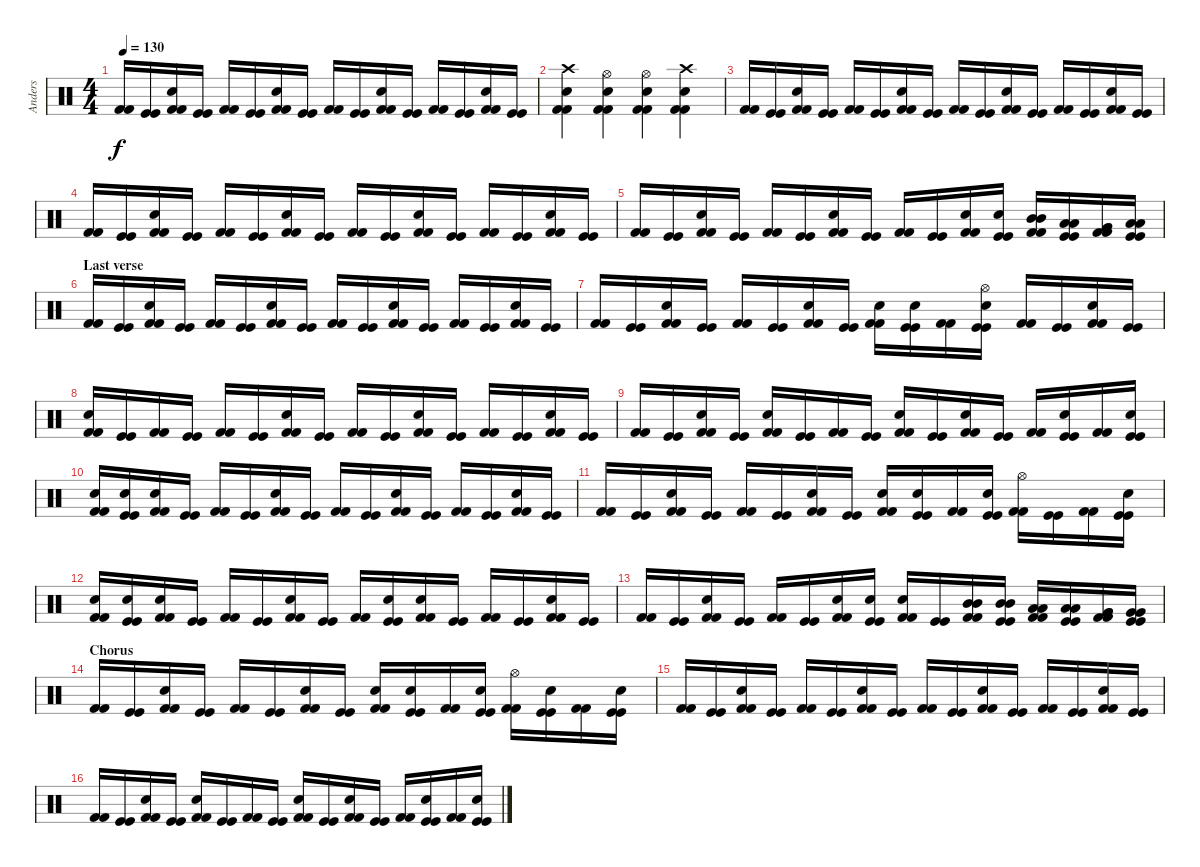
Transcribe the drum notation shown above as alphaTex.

\track ("Anders" "Anders") {instrument percussion}
\staff {score}
\articulation defaults
\ts (4 4)
\tempo 130
\clef neutral
\ks c
("Kick (hit) 2" "Kick (hit) 2").16{dy f} ("Kick (hit)" "Kick (hit)").16 ("Snare (hit) 2" "Kick (hit) 2" "Kick (hit) 2").16 ("Kick (hit)" "Kick (hit)").16 ("Kick (hit) 2" "Kick (hit) 2").16 ("Kick (hit)" "Kick (hit)").16 ("Snare (hit) 2" "Kick (hit) 2" "Kick (hit) 2").16 ("Kick (hit)" "Kick (hit)").16 ("Kick (hit) 2" "Kick (hit) 2").16 ("Kick (hit)" "Kick (hit)").16 ("Snare (hit) 2" "Kick (hit) 2" "Kick (hit) 2").16 ("Kick (hit)" "Kick (hit)").16 ("Kick (hit) 2" "Kick (hit) 2").16 ("Kick (hit)" "Kick (hit)").16 ("Snare (hit) 2" "Kick (hit) 2" "Kick (hit) 2").16 ("Kick (hit)" "Kick (hit)").16 |
("Crash high (hit)" "Snare (hit) 2" "Kick (hit) 2" "Kick (hit) 2").4 ("Hi-Hat (open)" "Snare (hit) 2" "Kick (hit) 2" "Kick (hit) 2").4 ("Hi-Hat (open)" "Snare (hit) 2" "Kick (hit) 2" "Kick (hit) 2").4 ("Crash high (hit)" "Snare (hit) 2" "Kick (hit) 2" "Kick (hit) 2").4 |
\section ("" "")
("Kick (hit) 2" "Kick (hit) 2").16 ("Kick (hit)" "Kick (hit)").16 ("Snare (hit) 2" "Kick (hit) 2" "Kick (hit) 2").16 ("Kick (hit)" "Kick (hit)").16 ("Kick (hit) 2" "Kick (hit) 2").16 ("Kick (hit)" "Kick (hit)").16 ("Snare (hit) 2" "Kick (hit) 2" "Kick (hit) 2").16 ("Kick (hit)" "Kick (hit)").16 ("Kick (hit) 2" "Kick (hit) 2").16 ("Kick (hit)" "Kick (hit)").16 ("Snare (hit) 2" "Kick (hit) 2" "Kick (hit) 2").16 ("Kick (hit)" "Kick (hit)").16 ("Kick (hit) 2" "Kick (hit) 2").16 ("Kick (hit)" "Kick (hit)").16 ("Snare (hit) 2" "Kick (hit) 2" "Kick (hit) 2").16 ("Kick (hit)" "Kick (hit)").16 |
("Kick (hit) 2" "Kick (hit) 2").16 ("Kick (hit)" "Kick (hit)").16 ("Snare (hit) 2" "Kick (hit) 2" "Kick (hit) 2").16 ("Kick (hit)" "Kick (hit)").16 ("Kick (hit) 2" "Kick (hit) 2").16 ("Kick (hit)" "Kick (hit)").16 ("Snare (hit) 2" "Kick (hit) 2" "Kick (hit) 2").16 ("Kick (hit)" "Kick (hit)").16 ("Kick (hit) 2" "Kick (hit) 2").16 ("Kick (hit)" "Kick (hit)").16 ("Snare (hit) 2" "Kick (hit) 2" "Kick (hit) 2").16 ("Kick (hit)" "Kick (hit)").16 ("Kick (hit) 2" "Kick (hit) 2").16 ("Kick (hit)" "Kick (hit)").16 ("Snare (hit) 2" "Kick (hit) 2" "Kick (hit) 2").16 ("Kick (hit)" "Kick (hit)").16 |
("Kick (hit) 2" "Kick (hit) 2").16 ("Kick (hit)" "Kick (hit)").16 ("Snare (hit) 2" "Kick (hit) 2" "Kick (hit) 2").16 ("Kick (hit)" "Kick (hit)").16 ("Kick (hit) 2" "Kick (hit) 2").16 ("Kick (hit)" "Kick (hit)").16 ("Snare (hit) 2" "Kick (hit) 2" "Kick (hit) 2").16 ("Kick (hit)" "Kick (hit)").16 ("Kick (hit) 2" "Kick (hit) 2").16 ("Kick (hit)" "Kick (hit)").16 ("Snare (hit) 2" "Kick (hit) 2" "Kick (hit) 2").16 ("Snare (hit)" "Kick (hit)" "Kick (hit)").16 ("Mid Tom (hit)" "Mid Tom (hit)" "Kick (hit) 2" "Kick (hit) 2").16 ("Low Tom (hit)" "Low Tom (hit)" "Kick (hit)" "Kick (hit)").16 ("Very Low Tom (hit)" "Very Low Tom (hit)" "Kick (hit) 2" "Kick (hit) 2").16 ("Low Floor Tom (hit)" "Low Floor Tom (hit)" "Kick (hit)" "Kick (hit)").16 |
\section ("" "Last verse")
("Kick (hit) 2" "Kick (hit) 2").16 ("Kick (hit)" "Kick (hit)").16 ("Snare (hit) 2" "Kick (hit) 2" "Kick (hit) 2").16 ("Kick (hit)" "Kick (hit)").16 ("Kick (hit) 2" "Kick (hit) 2").16 ("Kick (hit)" "Kick (hit)").16 ("Snare (hit) 2" "Kick (hit) 2" "Kick (hit) 2").16 ("Kick (hit)" "Kick (hit)").16 ("Kick (hit) 2" "Kick (hit) 2").16 ("Kick (hit)" "Kick (hit)").16 ("Snare (hit) 2" "Kick (hit) 2" "Kick (hit) 2").16 ("Kick (hit)" "Kick (hit)").16 ("Kick (hit) 2" "Kick (hit) 2").16 ("Kick (hit)" "Kick (hit)").16 ("Snare (hit) 2" "Kick (hit) 2" "Kick (hit) 2").16 ("Kick (hit)" "Kick (hit)").16 |
("Kick (hit) 2" "Kick (hit) 2").16 ("Kick (hit)" "Kick (hit)").16 ("Snare (hit) 2" "Kick (hit) 2" "Kick (hit) 2").16 ("Kick (hit)" "Kick (hit)").16 ("Kick (hit) 2" "Kick (hit) 2").16 ("Kick (hit)" "Kick (hit)").16 ("Snare (hit) 2" "Kick (hit) 2" "Kick (hit) 2").16 ("Kick (hit)" "Kick (hit)").16 ("Snare (hit) 2" "Kick (hit) 2" "Kick (hit) 2").16 ("Snare (hit) 2" "Kick (hit)" "Kick (hit)").16 ("Kick (hit) 2" "Kick (hit) 2").16 ("Hi-Hat (open)" "Snare (hit) 2" "Kick (hit)" "Kick (hit)").16 ("Kick (hit) 2" "Kick (hit) 2").16 ("Kick (hit)" "Kick (hit)").16 ("Snare (hit) 2" "Kick (hit) 2" "Kick (hit) 2").16 ("Kick (hit)" "Kick (hit)").16 |
("Snare (hit) 2" "Kick (hit) 2" "Kick (hit) 2").16 ("Kick (hit)" "Kick (hit)").16 ("Kick (hit) 2" "Kick (hit) 2").16 ("Kick (hit)" "Kick (hit)").16 ("Kick (hit) 2" "Kick (hit) 2").16 ("Kick (hit)" "Kick (hit)").16 ("Snare (hit) 2" "Kick (hit) 2" "Kick (hit) 2").16 ("Kick (hit)" "Kick (hit)").16 ("Kick (hit) 2" "Kick (hit) 2").16 ("Kick (hit)" "Kick (hit)").16 ("Snare (hit) 2" "Kick (hit) 2" "Kick (hit) 2").16 ("Kick (hit)" "Kick (hit)").16 ("Kick (hit) 2" "Kick (hit) 2").16 ("Kick (hit)" "Kick (hit)").16 ("Snare (hit) 2" "Kick (hit) 2" "Kick (hit) 2").16 ("Kick (hit)" "Kick (hit)").16 |
("Kick (hit) 2" "Kick (hit) 2").16 ("Kick (hit)" "Kick (hit)").16 ("Snare (hit) 2" "Kick (hit) 2" "Kick (hit) 2").16 ("Kick (hit)" "Kick (hit)").16 ("Snare (hit) 2" "Kick (hit) 2" "Kick (hit) 2").16 ("Kick (hit)" "Kick (hit)").16 ("Kick (hit) 2" "Kick (hit) 2").16 ("Kick (hit)" "Kick (hit)").16 ("Snare (hit) 2" "Kick (hit) 2" "Kick (hit) 2").16 ("Kick (hit)" "Kick (hit)").16 ("Snare (hit) 2" "Kick (hit) 2" "Kick (hit) 2").16 ("Kick (hit)" "Kick (hit)").16 ("Kick (hit) 2" "Kick (hit) 2").16 ("Snare (hit) 2" "Kick (hit)" "Kick (hit)").16 ("Kick (hit) 2" "Kick (hit) 2").16 ("Snare (hit) 2" "Kick (hit)" "Kick (hit)").16 |
("Snare (hit) 2" "Kick (hit) 2" "Kick (hit) 2").16 ("Snare (hit) 2" "Kick (hit)" "Kick (hit)").16 ("Snare (hit) 2" "Kick (hit) 2" "Kick (hit) 2").16 ("Kick (hit)" "Kick (hit)").16 ("Kick (hit) 2" "Kick (hit) 2").16 ("Kick (hit)" "Kick (hit)").16 ("Snare (hit) 2" "Kick (hit) 2" "Kick (hit) 2").16 ("Kick (hit)" "Kick (hit)").16 ("Kick (hit) 2" "Kick (hit) 2").16 ("Kick (hit)" "Kick (hit)").16 ("Snare (hit) 2" "Kick (hit) 2" "Kick (hit) 2").16 ("Kick (hit)" "Kick (hit)").16 ("Kick (hit) 2" "Kick (hit) 2").16 ("Kick (hit)" "Kick (hit)").16 ("Snare (hit) 2" "Kick (hit) 2" "Kick (hit) 2").16 ("Kick (hit)" "Kick (hit)").16 |
("Kick (hit) 2" "Kick (hit) 2").16 ("Kick (hit)" "Kick (hit)").16 ("Snare (hit) 2" "Kick (hit) 2" "Kick (hit) 2").16 ("Kick (hit)" "Kick (hit)").16 ("Kick (hit) 2" "Kick (hit) 2").16 ("Kick (hit)" "Kick (hit)").16 ("Snare (hit) 2" "Kick (hit) 2" "Kick (hit) 2").16 ("Kick (hit)" "Kick (hit)").16 ("Snare (hit) 2" "Kick (hit) 2" "Kick (hit) 2").16 ("Snare (hit) 2" "Kick (hit)" "Kick (hit)").16 ("Kick (hit) 2" "Kick (hit) 2").16 ("Snare (hit) 2" "Kick (hit)" "Kick (hit)").16 ("Hi-Hat (open)" "Kick (hit) 2" "Kick (hit) 2").16 ("Kick (hit)" "Kick (hit)").16 ("Kick (hit) 2" "Kick (hit) 2").16 ("Snare (hit) 2" "Kick (hit)" "Kick (hit)").16 |
("Snare (hit) 2" "Kick (hit) 2" "Kick (hit) 2").16 ("Snare (hit) 2" "Kick (hit)" "Kick (hit)").16 ("Snare (hit) 2" "Kick (hit) 2" "Kick (hit) 2").16 ("Kick (hit)" "Kick (hit)").16 ("Kick (hit) 2" "Kick (hit) 2").16 ("Kick (hit)" "Kick (hit)").16 ("Snare (hit) 2" "Kick (hit) 2" "Kick (hit) 2").16 ("Kick (hit)" "Kick (hit)").16 ("Kick (hit) 2" "Kick (hit) 2").16 ("Snare (hit) 2" "Kick (hit)" "Kick (hit)").16 ("Snare (hit) 2" "Kick (hit) 2" "Kick (hit) 2").16 ("Kick (hit)" "Kick (hit)").16 ("Kick (hit) 2" "Kick (hit) 2").16 ("Kick (hit)" "Kick (hit)").16 ("Snare (hit) 2" "Kick (hit) 2" "Kick (hit) 2").16 ("Kick (hit)" "Kick (hit)").16 |
("Kick (hit) 2" "Kick (hit) 2").16 ("Kick (hit)" "Kick (hit)").16 ("Snare (hit) 2" "Kick (hit) 2" "Kick (hit) 2").16 ("Kick (hit)" "Kick (hit)").16 ("Kick (hit) 2" "Kick (hit) 2").16 ("Kick (hit)" "Kick (hit)").16 ("Snare (hit) 2" "Kick (hit) 2" "Kick (hit) 2").16 ("Snare (hit) 2" "Kick (hit)" "Kick (hit)").16 ("Snare (hit) 2" "Kick (hit) 2" "Kick (hit) 2").16 ("Kick (hit)" "Kick (hit)").16 ("Mid Tom (hit)" "Mid Tom (hit)" "Kick (hit) 2" "Kick (hit) 2").16 ("Mid Tom (hit)" "Mid Tom (hit)" "Kick (hit)" "Kick (hit)").16 ("Low Tom (hit)" "Low Tom (hit)" "Kick (hit) 2" "Kick (hit) 2").16 ("Low Tom (hit)" "Low Tom (hit)" "Kick (hit)" "Kick (hit)").16 ("Very Low Tom (hit)" "Very Low Tom (hit)" "Kick (hit) 2" "Kick (hit) 2").16 ("Very Low Tom (hit)" "Very Low Tom (hit)" "Kick (hit)" "Kick (hit)").16 |
\section ("" "Chorus")
("Kick (hit) 2" "Kick (hit) 2").16 ("Kick (hit)" "Kick (hit)").16 ("Snare (hit) 2" "Kick (hit) 2" "Kick (hit) 2").16 ("Kick (hit)" "Kick (hit)").16 ("Kick (hit) 2" "Kick (hit) 2").16 ("Kick (hit)" "Kick (hit)").16 ("Snare (hit) 2" "Kick (hit) 2" "Kick (hit) 2").16 ("Kick (hit)" "Kick (hit)").16 ("Snare (hit) 2" "Kick (hit) 2" "Kick (hit) 2").16 ("Snare (hit) 2" "Kick (hit)" "Kick (hit)").16 ("Kick (hit) 2" "Kick (hit) 2").16 ("Snare (hit) 2" "Kick (hit)" "Kick (hit)").16 ("Hi-Hat (open)" "Kick (hit) 2" "Kick (hit) 2").16 ("Snare (hit) 2" "Kick (hit)" "Kick (hit)").16 ("Kick (hit) 2" "Kick (hit) 2").16 ("Snare (hit) 2" "Kick (hit)" "Kick (hit)").16 |
("Kick (hit) 2" "Kick (hit) 2").16 ("Kick (hit)" "Kick (hit)").16 ("Snare (hit) 2" "Kick (hit) 2" "Kick (hit) 2").16 ("Kick (hit)" "Kick (hit)").16 ("Kick (hit) 2" "Kick (hit) 2").16 ("Kick (hit)" "Kick (hit)").16 ("Snare (hit) 2" "Kick (hit) 2" "Kick (hit) 2").16 ("Kick (hit)" "Kick (hit)").16 ("Kick (hit) 2" "Kick (hit) 2").16 ("Kick (hit)" "Kick (hit)").16 ("Snare (hit) 2" "Kick (hit) 2" "Kick (hit) 2").16 ("Kick (hit)" "Kick (hit)").16 ("Kick (hit) 2" "Kick (hit) 2").16 ("Kick (hit)" "Kick (hit)").16 ("Snare (hit) 2" "Kick (hit) 2" "Kick (hit) 2").16 ("Kick (hit)" "Kick (hit)").16 |
("Kick (hit) 2" "Kick (hit) 2").16 ("Kick (hit)" "Kick (hit)").16 ("Snare (hit) 2" "Kick (hit) 2" "Kick (hit) 2").16 ("Kick (hit)" "Kick (hit)").16 ("Snare (hit) 2" "Kick (hit) 2" "Kick (hit) 2").16 ("Kick (hit)" "Kick (hit)").16 ("Kick (hit) 2" "Kick (hit) 2").16 ("Kick (hit)" "Kick (hit)").16 ("Snare (hit) 2" "Kick (hit) 2" "Kick (hit) 2").16 ("Kick (hit)" "Kick (hit)").16 ("Snare (hit) 2" "Kick (hit) 2" "Kick (hit) 2").16 ("Kick (hit)" "Kick (hit)").16 ("Kick (hit) 2" "Kick (hit) 2").16 ("Snare (hit) 2" "Kick (hit)" "Kick (hit)").16 ("Kick (hit) 2" "Kick (hit) 2").16 ("Snare (hit) 2" "Kick (hit)" "Kick (hit)").16
